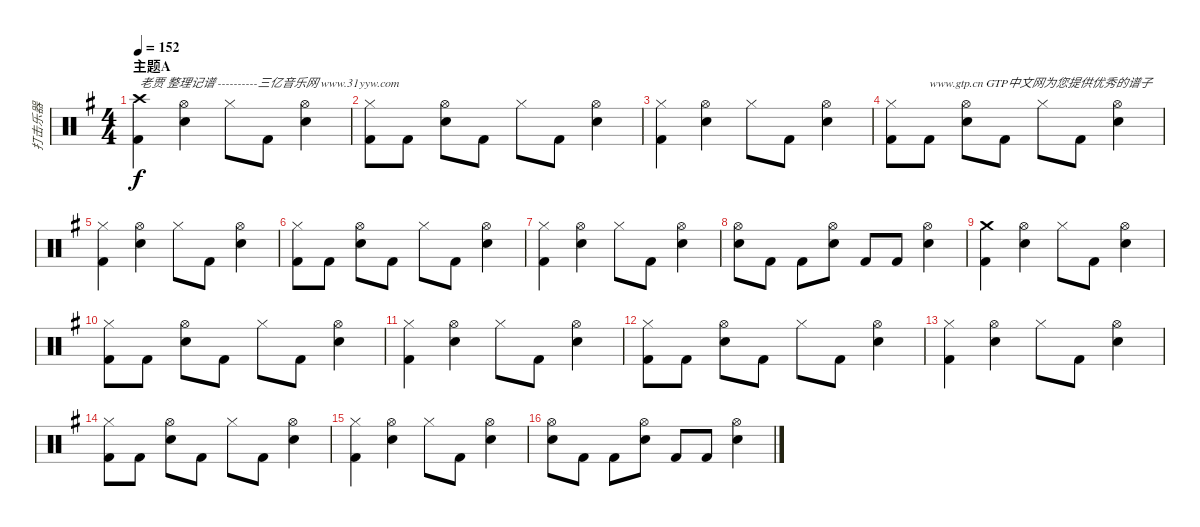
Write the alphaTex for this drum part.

\track ("打击乐器" "打击乐器") {instrument percussion}
\staff {score}
\articulation defaults
\ts (4 4)
\section ("" "主题A")
\tempo 152
\clef neutral
\ks g
("Crash high (hit)" "Kick (hit) 2").4{txt "老贾 整理记谱 ----------三亿音乐网 www.31yyw.com" dy f} ("Hi-Hat (open)" "Metronome (bell)").4 "Hi-Hat (closed)".8 "Kick (hit) 2".8 ("Hi-Hat (open)" "Metronome (bell)").4 |
("Hi-Hat (closed)" "Kick (hit) 2").8 "Kick (hit) 2".8 ("Hi-Hat (open)" "Metronome (bell)").8 "Kick (hit) 2".8 "Hi-Hat (closed)".8 "Kick (hit) 2".8 ("Hi-Hat (open)" "Metronome (bell)").4 |
("Hi-Hat (closed)" "Kick (hit) 2").4 ("Hi-Hat (open)" "Metronome (bell)").4 "Hi-Hat (closed)".8 "Kick (hit) 2".8 ("Hi-Hat (open)" "Metronome (bell)").4 |
("Hi-Hat (closed)" "Kick (hit) 2").8 "Kick (hit) 2".8{txt "www.gtp.cn GTP中文网为您提供优秀的谱子"} ("Hi-Hat (open)" "Metronome (bell)").8 "Kick (hit) 2".8 "Hi-Hat (closed)".8 "Kick (hit) 2".8 ("Hi-Hat (open)" "Metronome (bell)").4 |
("Hi-Hat (closed)" "Kick (hit) 2").4 ("Hi-Hat (open)" "Metronome (bell)").4 "Hi-Hat (closed)".8 "Kick (hit) 2".8 ("Hi-Hat (open)" "Metronome (bell)").4 |
("Hi-Hat (closed)" "Kick (hit) 2").8 "Kick (hit) 2".8 ("Hi-Hat (open)" "Metronome (bell)").8 "Kick (hit) 2".8 "Hi-Hat (closed)".8 "Kick (hit) 2".8 ("Hi-Hat (open)" "Metronome (bell)").4 |
("Hi-Hat (closed)" "Kick (hit) 2").4 ("Hi-Hat (open)" "Metronome (bell)").4 "Hi-Hat (closed)".8 "Kick (hit) 2".8 ("Hi-Hat (open)" "Metronome (bell)").4 |
("Hi-Hat (open)" "Metronome (bell)").8 "Kick (hit) 2".8 "Kick (hit) 2".8 ("Hi-Hat (open)" "Metronome (bell)").8 "Kick (hit) 2".8 "Kick (hit) 2".8 ("Hi-Hat (open)" "Metronome (bell)").4 |
("Crash medium (hit)" "Kick (hit) 2").4 ("Hi-Hat (open)" "Metronome (bell)").4 "Hi-Hat (closed)".8 "Kick (hit) 2".8 ("Hi-Hat (open)" "Metronome (bell)").4 |
("Hi-Hat (closed)" "Kick (hit) 2").8 "Kick (hit) 2".8 ("Hi-Hat (open)" "Metronome (bell)").8 "Kick (hit) 2".8 "Hi-Hat (closed)".8 "Kick (hit) 2".8 ("Hi-Hat (open)" "Metronome (bell)").4 |
("Hi-Hat (closed)" "Kick (hit) 2").4 ("Hi-Hat (open)" "Metronome (bell)").4 "Hi-Hat (closed)".8 "Kick (hit) 2".8 ("Hi-Hat (open)" "Metronome (bell)").4 |
("Hi-Hat (closed)" "Kick (hit) 2").8 "Kick (hit) 2".8 ("Hi-Hat (open)" "Metronome (bell)").8 "Kick (hit) 2".8 "Hi-Hat (closed)".8 "Kick (hit) 2".8 ("Hi-Hat (open)" "Metronome (bell)").4 |
("Hi-Hat (closed)" "Kick (hit) 2").4 ("Hi-Hat (open)" "Metronome (bell)").4 "Hi-Hat (closed)".8 "Kick (hit) 2".8 ("Hi-Hat (open)" "Metronome (bell)").4 |
("Hi-Hat (closed)" "Kick (hit) 2").8 "Kick (hit) 2".8 ("Hi-Hat (open)" "Metronome (bell)").8 "Kick (hit) 2".8 "Hi-Hat (closed)".8 "Kick (hit) 2".8 ("Hi-Hat (open)" "Metronome (bell)").4 |
("Hi-Hat (closed)" "Kick (hit) 2").4 ("Hi-Hat (open)" "Metronome (bell)").4 "Hi-Hat (closed)".8 "Kick (hit) 2".8 ("Hi-Hat (open)" "Metronome (bell)").4 |
("Hi-Hat (open)" "Metronome (bell)").8 "Kick (hit) 2".8 "Kick (hit) 2".8 ("Hi-Hat (open)" "Metronome (bell)").8 "Kick (hit) 2".8 "Kick (hit) 2".8 ("Hi-Hat (open)" "Metronome (bell)").4
